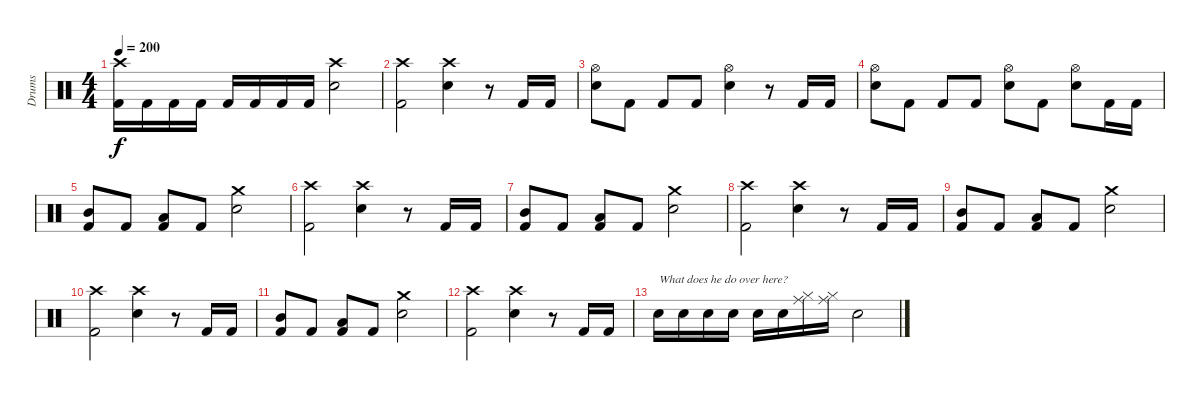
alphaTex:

\track ("Drums" "Drums") {instrument percussion}
\staff {score}
\articulation defaults
\ts (4 4)
\tempo 200
\clef neutral
\ks c
("Crash high (hit)" "Kick (hit) 2").16{dy f} "Kick (hit) 2".16 "Kick (hit) 2".16 "Kick (hit) 2".16 "Kick (hit) 2".16 "Kick (hit) 2".16 "Kick (hit) 2".16 "Kick (hit) 2".16 ("Crash high (hit)" "Snare (hit) 2").2 |
("Crash high (hit)" "Kick (hit) 2").2 ("Crash high (hit)" "Snare (hit) 2").4 r.8 "Kick (hit) 2".16 "Kick (hit) 2".16 |
("Snare (hit) 2" "Hi-Hat (open)").8 "Kick (hit) 2".8 "Kick (hit) 2".8 "Kick (hit) 2".8 ("Snare (hit) 2" "Hi-Hat (open)").4 r.8 "Kick (hit) 2".16 "Kick (hit) 2".16 |
("Snare (hit) 2" "Hi-Hat (open)").8 "Kick (hit) 2".8 "Kick (hit) 2".8 "Kick (hit) 2".8 ("Snare (hit) 2" "Hi-Hat (open)").8 "Kick (hit) 2".8 ("Snare (hit) 2" "Hi-Hat (open)").8 "Kick (hit) 2".16 "Kick (hit) 2".16 |
("Mid Tom (hit)" "Kick (hit) 2").8 "Kick (hit) 2".8 ("Low Tom (hit)" "Kick (hit) 2").8 "Kick (hit) 2".8 ("Crash medium (hit)" "Snare (hit) 2").2 |
("Crash high (hit)" "Kick (hit) 2").2 ("Crash high (hit)" "Snare (hit) 2").4 r.8 "Kick (hit) 2".16 "Kick (hit) 2".16 |
("Mid Tom (hit)" "Kick (hit) 2").8 "Kick (hit) 2".8 ("Low Tom (hit)" "Kick (hit) 2").8 "Kick (hit) 2".8 ("Crash medium (hit)" "Snare (hit) 2").2 |
("Crash high (hit)" "Kick (hit) 2").2 ("Crash high (hit)" "Snare (hit) 2").4 r.8 "Kick (hit) 2".16 "Kick (hit) 2".16 |
("Mid Tom (hit)" "Kick (hit) 2").8 "Kick (hit) 2".8 ("Low Tom (hit)" "Kick (hit) 2").8 "Kick (hit) 2".8 ("Crash medium (hit)" "Snare (hit) 2").2 |
("Crash high (hit)" "Kick (hit) 2").2 ("Crash high (hit)" "Snare (hit) 2").4 r.8 "Kick (hit) 2".16 "Kick (hit) 2".16 |
("Mid Tom (hit)" "Kick (hit) 2").8 "Kick (hit) 2".8 ("Low Tom (hit)" "Kick (hit) 2").8 "Kick (hit) 2".8 ("Crash medium (hit)" "Snare (hit) 2").2 |
("Crash high (hit)" "Kick (hit) 2").2 ("Crash high (hit)" "Snare (hit) 2").4 r.8 "Kick (hit) 2".16 "Kick (hit) 2".16 |
"Snare (hit) 2".16{txt "What does he do over here?"} "Snare (hit) 2".16 "Snare (hit) 2".16 "Snare (hit) 2".16 "Snare (hit) 2".16 "Snare (hit) 2".16 ("Ride (middle)" "Hi-Hat (closed)").16 ("Ride (middle)" "Hi-Hat (closed)").16 "Snare (hit) 2".2
